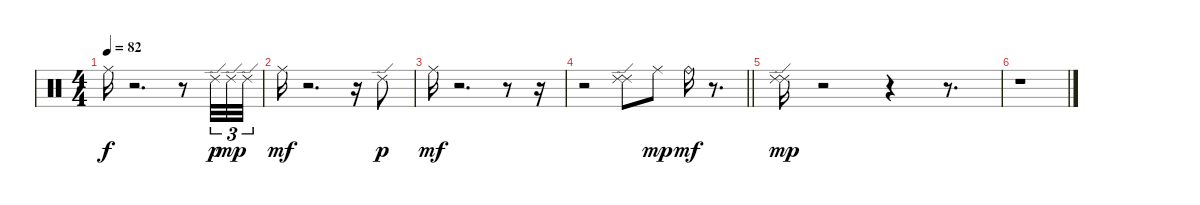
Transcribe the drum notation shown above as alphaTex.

\track "" {instrument percussion}
\staff {score}
\articulation defaults
\ts (4 4)
\tempo 82
\clef neutral
\ks c "Ride (middle)".16{dy f}
r.2{d} r.8 "Ride (edge) 2".32{tu (3 2) dy p} "Ride (edge) 2".32{tu (3 2) dy mp} "Ride (edge) 2".32{tu (3 2)} |
"Ride (middle)".16{dy mf} r.2{d} r.16 "Ride (edge) 2".8{dy p} |
"Ride (middle)".16{dy mf} r.2{d} r.8 r.16 |
\barLineRight lightlight
r.2 ("Ride (edge) 2" "Ride (edge) 2").8 "Ride (middle)".8{dy mp} "Ride (bell)".16{dy mf} r.8{d} |
("Ride (edge) 2" "Ride (edge) 2").16{bd 480 dy mp} r.2 r.4 r.8{d} |
r.1
